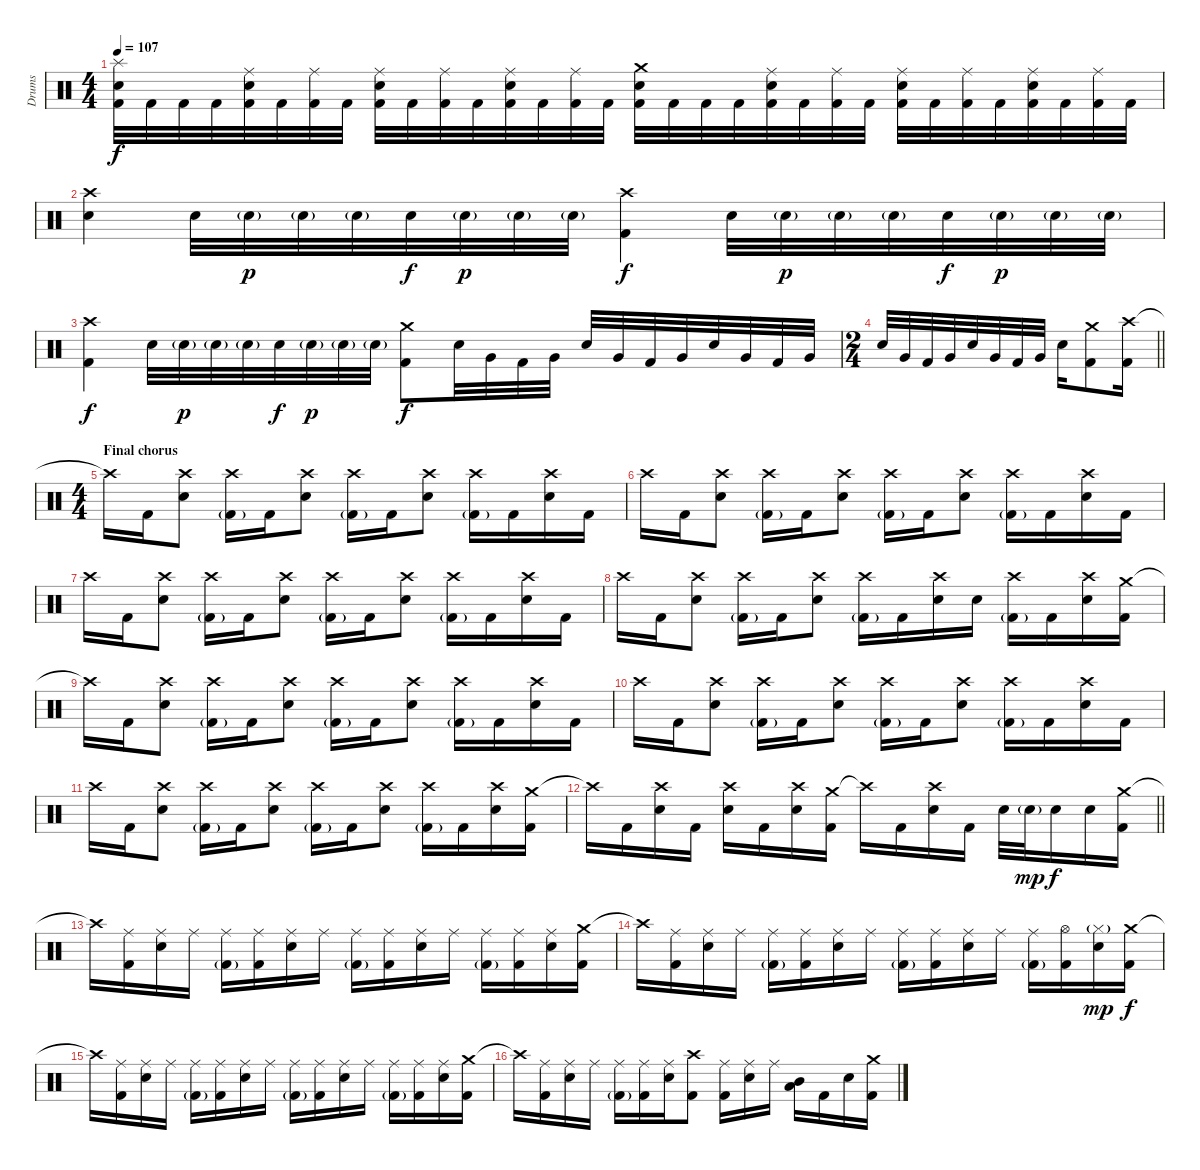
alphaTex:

\track ("Drums" "Drums") {instrument percussion}
\staff {score}
\articulation defaults
\ts (4 4)
\tempo 107
\clef neutral
\ks c
("Splash (hit)" "Electric Snare (hit)" "Kick (hit) 2").32{dy f} "Kick (hit) 2".32 "Kick (hit) 2".32 "Kick (hit) 2".32 ("Ride (middle)" "Electric Snare (hit)" "Kick (hit) 2").32 "Kick (hit) 2".32 ("Ride (middle)" "Kick (hit) 2").32 "Kick (hit) 2".32 ("Ride (middle)" "Electric Snare (hit)" "Kick (hit) 2").32 "Kick (hit) 2".32 ("Ride (middle)" "Kick (hit) 2").32 "Kick (hit) 2".32 ("Ride (middle)" "Electric Snare (hit)" "Kick (hit) 2").32 "Kick (hit) 2".32 ("Ride (middle)" "Kick (hit) 2").32 "Kick (hit) 2".32 ("Crash medium (hit)" "Electric Snare (hit)" "Kick (hit) 2").32 "Kick (hit) 2".32 "Kick (hit) 2".32 "Kick (hit) 2".32 ("Ride (middle)" "Electric Snare (hit)" "Kick (hit) 2").32 "Kick (hit) 2".32 ("Ride (middle)" "Kick (hit) 2").32 "Kick (hit) 2".32 ("Ride (middle)" "Electric Snare (hit)" "Kick (hit) 2").32 "Kick (hit) 2".32 ("Ride (middle)" "Kick (hit) 2").32 "Kick (hit) 2".32 ("Ride (middle)" "Electric Snare (hit)" "Kick (hit) 2").32 "Kick (hit) 2".32 ("Ride (middle)" "Kick (hit) 2").32 "Kick (hit) 2".32 |
("Crash high (hit)" "Electric Snare (hit)").4 "Electric Snare (hit)".32 "Electric Snare (hit)"{g}.32{dy p} "Electric Snare (hit)"{g}.32 "Electric Snare (hit)"{g}.32 "Electric Snare (hit)".32{dy f} "Electric Snare (hit)"{g}.32{dy p} "Electric Snare (hit)"{g}.32 "Electric Snare (hit)"{g}.32 ("Crash high (hit)" "Kick (hit) 2").4{dy f} "Electric Snare (hit)".32 "Electric Snare (hit)"{g}.32{dy p} "Electric Snare (hit)"{g}.32 "Electric Snare (hit)"{g}.32 "Electric Snare (hit)".32{dy f} "Electric Snare (hit)"{g}.32{dy p} "Electric Snare (hit)"{g}.32 "Electric Snare (hit)"{g}.32 |
("Crash high (hit)" "Kick (hit) 2").4{dy f} "Electric Snare (hit)".32 "Electric Snare (hit)"{g}.32{dy p} "Electric Snare (hit)"{g}.32 "Electric Snare (hit)"{g}.32 "Electric Snare (hit)".32{dy f} "Electric Snare (hit)"{g}.32{dy p} "Electric Snare (hit)"{g}.32 "Electric Snare (hit)"{g}.32 ("Crash medium (hit)" "Kick (hit) 2").8{dy f} "Electric Snare (hit)".32 "Very Low Tom (hit)".32 "Kick (hit) 2".32 "Very Low Tom (hit)".32 "Electric Snare (hit)".32 "Very Low Tom (hit)".32 "Kick (hit) 2".32 "Very Low Tom (hit)".32 "Electric Snare (hit)".32 "Very Low Tom (hit)".32 "Kick (hit) 2".32 "Very Low Tom (hit)".32 |
\ts (2 4)
\barLineRight lightlight "Electric Snare (hit)".32 "Very Low Tom (hit)".32 "Kick (hit) 2".32 "Very Low Tom (hit)".32 "Electric Snare (hit)".32 "Very Low Tom (hit)".32 "Kick (hit) 2".32 "Very Low Tom (hit)".32 "Electric Snare (hit)".16
("Crash medium (hit)" "Kick (hit) 2").8 ("Crash high (hit)" "Kick (hit) 2").16 |
\ts (4 4)
\section ("" "Final chorus")
"Crash high (hit)"{t}.16 "Kick (hit) 2".16 ("Crash high (hit)" "Electric Snare (hit)").8 ("Crash high (hit)" "Kick (hit) 2"{g}).16 "Kick (hit) 2".16 ("Crash high (hit)" "Electric Snare (hit)").8 ("Crash high (hit)" "Kick (hit) 2"{g}).16 "Kick (hit) 2".16 ("Crash high (hit)" "Electric Snare (hit)").8 ("Crash high (hit)" "Kick (hit) 2"{g}).16 "Kick (hit) 2".16 ("Crash high (hit)" "Electric Snare (hit)").16 "Kick (hit) 2".16 |
"Crash high (hit)".16 "Kick (hit) 2".16 ("Crash high (hit)" "Electric Snare (hit)").8 ("Crash high (hit)" "Kick (hit) 2"{g}).16 "Kick (hit) 2".16 ("Crash high (hit)" "Electric Snare (hit)").8 ("Crash high (hit)" "Kick (hit) 2"{g}).16 "Kick (hit) 2".16 ("Crash high (hit)" "Electric Snare (hit)").8 ("Crash high (hit)" "Kick (hit) 2"{g}).16 "Kick (hit) 2".16 ("Crash high (hit)" "Electric Snare (hit)").16 "Kick (hit) 2".16 |
"Crash high (hit)".16 "Kick (hit) 2".16 ("Crash high (hit)" "Electric Snare (hit)").8 ("Crash high (hit)" "Kick (hit) 2"{g}).16 "Kick (hit) 2".16 ("Crash high (hit)" "Electric Snare (hit)").8 ("Crash high (hit)" "Kick (hit) 2"{g}).16 "Kick (hit) 2".16 ("Crash high (hit)" "Electric Snare (hit)").8 ("Crash high (hit)" "Kick (hit) 2"{g}).16 "Kick (hit) 2".16 ("Crash high (hit)" "Electric Snare (hit)").16 "Kick (hit) 2".16 |
"Crash high (hit)".16 "Kick (hit) 2".16 ("Crash high (hit)" "Electric Snare (hit)").8 ("Crash high (hit)" "Kick (hit) 2"{g}).16 "Kick (hit) 2".16 ("Crash high (hit)" "Electric Snare (hit)").8 ("Crash high (hit)" "Kick (hit) 2"{g}).16 "Kick (hit) 2".16 ("Crash high (hit)" "Electric Snare (hit)").16 "Electric Snare (hit)".16 ("Crash high (hit)" "Kick (hit) 2"{g}).16 "Kick (hit) 2".16 ("Crash high (hit)" "Electric Snare (hit)").16 ("Crash medium (hit)" "Kick (hit) 2").16 |
"Crash high (hit)"{t}.16 "Kick (hit) 2".16 ("Crash high (hit)" "Electric Snare (hit)").8 ("Crash high (hit)" "Kick (hit) 2"{g}).16 "Kick (hit) 2".16 ("Crash high (hit)" "Electric Snare (hit)").8 ("Crash high (hit)" "Kick (hit) 2"{g}).16 "Kick (hit) 2".16 ("Crash high (hit)" "Electric Snare (hit)").8 ("Crash high (hit)" "Kick (hit) 2"{g}).16 "Kick (hit) 2".16 ("Crash high (hit)" "Electric Snare (hit)").16 "Kick (hit) 2".16 |
"Crash high (hit)".16 "Kick (hit) 2".16 ("Crash high (hit)" "Electric Snare (hit)").8 ("Crash high (hit)" "Kick (hit) 2"{g}).16 "Kick (hit) 2".16 ("Crash high (hit)" "Electric Snare (hit)").8 ("Crash high (hit)" "Kick (hit) 2"{g}).16 "Kick (hit) 2".16 ("Crash high (hit)" "Electric Snare (hit)").8 ("Crash high (hit)" "Kick (hit) 2"{g}).16 "Kick (hit) 2".16 ("Crash high (hit)" "Electric Snare (hit)").16 "Kick (hit) 2".16 |
"Crash high (hit)".16 "Kick (hit) 2".16 ("Crash high (hit)" "Electric Snare (hit)").8 ("Crash high (hit)" "Kick (hit) 2"{g}).16 "Kick (hit) 2".16 ("Crash high (hit)" "Electric Snare (hit)").8 ("Crash high (hit)" "Kick (hit) 2"{g}).16 "Kick (hit) 2".16 ("Crash high (hit)" "Electric Snare (hit)").8 ("Crash high (hit)" "Kick (hit) 2"{g}).16 "Kick (hit) 2".16 ("Crash high (hit)" "Electric Snare (hit)").16 ("Crash medium (hit)" "Kick (hit) 2").16 |
\barLineRight lightlight "Crash high (hit)"{t}.16 "Kick (hit) 2".16
("Crash high (hit)" "Electric Snare (hit)").16 "Kick (hit) 2".16 ("Crash high (hit)" "Electric Snare (hit)").16 "Kick (hit) 2".16 ("Crash high (hit)" "Electric Snare (hit)").16 ("Crash medium (hit)" "Kick (hit) 2").16 "Crash high (hit)"{t}.16 "Kick (hit) 2".16 ("Crash high (hit)" "Electric Snare (hit)").16 "Kick (hit) 2".16 "Electric Snare (hit)".32 "Electric Snare (hit)"{g}.32{dy mp} "Electric Snare (hit)".16{dy f} "Electric Snare (hit)".16 ("Crash medium (hit)" "Kick (hit) 2").16 |
"Crash high (hit)"{t}.16 ("Ride (middle)" "Kick (hit) 2").16 ("Ride (middle)" "Electric Snare (hit)").16 "Ride (middle)".16 ("Ride (middle)" "Kick (hit) 2"{g}).16 ("Ride (middle)" "Kick (hit) 2").16 ("Ride (middle)" "Electric Snare (hit)").16 "Ride (middle)".16 ("Ride (middle)" "Kick (hit) 2"{g}).16 ("Ride (middle)" "Kick (hit) 2").16 ("Ride (middle)" "Electric Snare (hit)").16 "Ride (middle)".16 ("Ride (middle)" "Kick (hit) 2"{g}).16 ("Ride (middle)" "Kick (hit) 2").16 ("Ride (middle)" "Electric Snare (hit)").16 ("Crash medium (hit)" "Kick (hit) 2").16 |
"Crash high (hit)"{t}.16 ("Ride (middle)" "Kick (hit) 2").16 ("Ride (middle)" "Electric Snare (hit)").16 "Ride (middle)".16 ("Ride (middle)" "Kick (hit) 2"{g}).16 ("Ride (middle)" "Kick (hit) 2").16 ("Ride (middle)" "Electric Snare (hit)").16 "Ride (middle)".16 ("Ride (middle)" "Kick (hit) 2"{g}).16 ("Ride (middle)" "Kick (hit) 2").16 ("Ride (middle)" "Electric Snare (hit)").16 "Ride (middle)".16 ("Ride (middle)" "Kick (hit) 2"{g}).16 ("Hi-Hat (open)" "Kick (hit) 2").16 ("Hi-Hat (closed)"{g} "Electric Snare (hit)").16{dy mp} ("Crash medium (hit)" "Kick (hit) 2").16{dy f} |
"Crash high (hit)"{t}.16 ("Ride (middle)" "Kick (hit) 2").16 ("Ride (middle)" "Electric Snare (hit)").16 "Ride (middle)".16 ("Ride (middle)" "Kick (hit) 2"{g}).16 ("Ride (middle)" "Kick (hit) 2").16 ("Ride (middle)" "Electric Snare (hit)").16 "Ride (middle)".16 ("Ride (middle)" "Kick (hit) 2"{g}).16 ("Ride (middle)" "Kick (hit) 2").16 ("Ride (middle)" "Electric Snare (hit)").16 "Ride (middle)".16 ("Ride (middle)" "Kick (hit) 2"{g}).16 ("Ride (middle)" "Kick (hit) 2").16 ("Ride (middle)" "Electric Snare (hit)").16 ("Crash medium (hit)" "Kick (hit) 2").16 |
"Crash high (hit)"{t}.16 ("Ride (middle)" "Kick (hit) 2").16 ("Ride (middle)" "Electric Snare (hit)").16 "Ride (middle)".16 ("Ride (middle)" "Kick (hit) 2"{g}).16 ("Ride (middle)" "Kick (hit) 2").16 ("Ride (middle)" "Electric Snare (hit)").16 ("Crash high (hit)" "Kick (hit) 2").8 ("Ride (middle)" "Kick (hit) 2").16 ("Ride (middle)" "Electric Snare (hit)").16 "Ride (middle)".16 ("Mid Tom (hit)" "Low Tom (hit)").16 "Kick (hit) 2".16 "Electric Snare (hit)".16 ("Crash medium (hit)" "Kick (hit) 2").16
